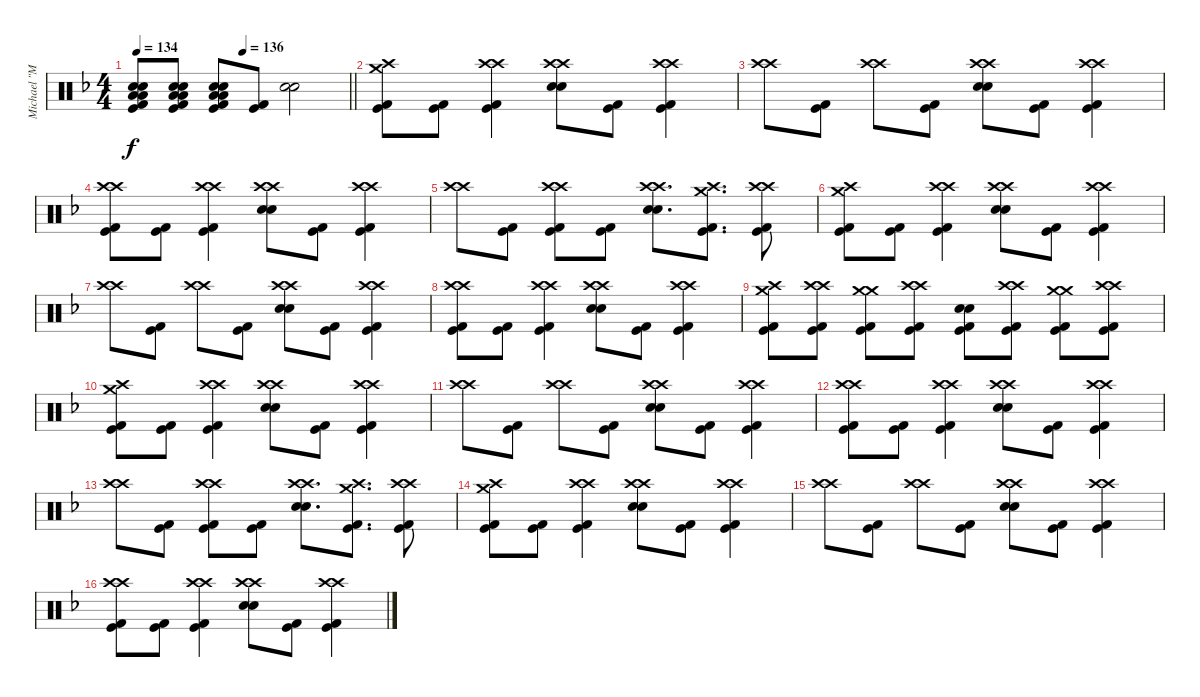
\track ("Michael \"Moose\" Thomas" "Michael \"M") {instrument percussion}
\staff {score}
\articulation defaults
\ts (4 4)
\tempo 134
\tempo (136 0.5)
\clef neutral
\barLineRight lightlight
\ks f
("Low Floor Tom (hit)" "Low Floor Tom (hit)" "Electric Snare (hit)" "Electric Snare (hit)" "Kick (hit)" "Kick (hit) 2").8{dy f} ("Low Floor Tom (hit)" "Low Floor Tom (hit)" "Electric Snare (hit)" "Electric Snare (hit)" "Kick (hit)" "Kick (hit) 2").8 ("Low Floor Tom (hit)" "Low Floor Tom (hit)" "Electric Snare (hit)" "Electric Snare (hit)" "Kick (hit)" "Kick (hit) 2").8 ("Kick (hit)" "Kick (hit) 2").8 ("Electric Snare (hit)" "Electric Snare (hit)").2 |
("Crash high (hit)" "Crash medium (hit)" "Kick (hit)" "Kick (hit) 2").8 ("Kick (hit)" "Kick (hit) 2").8 ("Crash high (hit)" "Crash high (hit)" "Kick (hit)" "Kick (hit) 2").4 ("Crash high (hit)" "Crash high (hit)" "Electric Snare (hit)" "Electric Snare (hit)").8 ("Kick (hit)" "Kick (hit) 2").8 ("Crash high (hit)" "Crash high (hit)" "Kick (hit)" "Kick (hit) 2").4 |
("Crash high (hit)" "Crash high (hit)").8 ("Kick (hit)" "Kick (hit) 2").8 ("Crash high (hit)" "Crash high (hit)").8 ("Kick (hit)" "Kick (hit) 2").8 ("Crash high (hit)" "Crash high (hit)" "Electric Snare (hit)" "Electric Snare (hit)").8 ("Kick (hit)" "Kick (hit) 2").8 ("Crash high (hit)" "Crash high (hit)" "Kick (hit)" "Kick (hit) 2").4 |
("Crash high (hit)" "Crash high (hit)" "Kick (hit)" "Kick (hit) 2").8 ("Kick (hit)" "Kick (hit) 2").8 ("Crash high (hit)" "Crash high (hit)" "Kick (hit)" "Kick (hit) 2").4 ("Crash high (hit)" "Crash high (hit)" "Electric Snare (hit)" "Electric Snare (hit)").8 ("Kick (hit)" "Kick (hit) 2").8 ("Crash high (hit)" "Crash high (hit)" "Kick (hit)" "Kick (hit) 2").4 |
("Crash high (hit)" "Crash high (hit)").8 ("Kick (hit)" "Kick (hit) 2").8 ("Crash high (hit)" "Crash high (hit)" "Kick (hit)" "Kick (hit) 2").8 ("Kick (hit)" "Kick (hit) 2").8 ("Crash high (hit)" "Crash high (hit)" "Electric Snare (hit)" "Electric Snare (hit)").8{d} ("Crash high (hit)" "Crash medium (hit)" "Kick (hit)" "Kick (hit) 2").8{d} ("Crash high (hit)" "Crash high (hit)" "Kick (hit)" "Kick (hit) 2").8 |
("Crash high (hit)" "Crash medium (hit)" "Kick (hit)" "Kick (hit) 2").8 ("Kick (hit)" "Kick (hit) 2").8 ("Crash high (hit)" "Crash high (hit)" "Kick (hit)" "Kick (hit) 2").4 ("Crash high (hit)" "Crash high (hit)" "Electric Snare (hit)" "Electric Snare (hit)").8 ("Kick (hit)" "Kick (hit) 2").8 ("Crash high (hit)" "Crash high (hit)" "Kick (hit)" "Kick (hit) 2").4 |
("Crash high (hit)" "Crash high (hit)").8 ("Kick (hit)" "Kick (hit) 2").8 ("Crash high (hit)" "Crash high (hit)").8 ("Kick (hit)" "Kick (hit) 2").8 ("Crash high (hit)" "Crash high (hit)" "Electric Snare (hit)" "Electric Snare (hit)").8 ("Kick (hit)" "Kick (hit) 2").8 ("Crash high (hit)" "Crash high (hit)" "Kick (hit)" "Kick (hit) 2").4 |
("Crash high (hit)" "Crash high (hit)" "Kick (hit)" "Kick (hit) 2").8 ("Kick (hit)" "Kick (hit) 2").8 ("Crash high (hit)" "Crash high (hit)" "Kick (hit)" "Kick (hit) 2").4 ("Crash high (hit)" "Crash high (hit)" "Electric Snare (hit)" "Electric Snare (hit)").8 ("Kick (hit)" "Kick (hit) 2").8 ("Crash high (hit)" "Crash high (hit)" "Kick (hit)" "Kick (hit) 2").4 |
("Crash high (hit)" "Crash medium (hit)" "Kick (hit)" "Kick (hit) 2").8 ("Crash high (hit)" "Crash high (hit)" "Kick (hit)" "Kick (hit) 2").8 ("Crash medium (hit)" "Crash medium (hit)" "Kick (hit)" "Kick (hit) 2").8 ("Crash high (hit)" "Crash high (hit)" "Kick (hit)" "Kick (hit) 2").8 ("Electric Snare (hit)" "Electric Snare (hit)" "Kick (hit)" "Kick (hit) 2").8 ("Crash high (hit)" "Crash high (hit)" "Kick (hit)" "Kick (hit) 2").8 ("Crash medium (hit)" "Crash medium (hit)" "Kick (hit)" "Kick (hit) 2").8 ("Crash high (hit)" "Crash high (hit)" "Kick (hit)" "Kick (hit) 2").8 |
("Crash high (hit)" "Crash medium (hit)" "Kick (hit)" "Kick (hit) 2").8 ("Kick (hit)" "Kick (hit) 2").8 ("Crash high (hit)" "Crash high (hit)" "Kick (hit)" "Kick (hit) 2").4 ("Crash high (hit)" "Crash high (hit)" "Electric Snare (hit)" "Electric Snare (hit)").8 ("Kick (hit)" "Kick (hit) 2").8 ("Crash high (hit)" "Crash high (hit)" "Kick (hit)" "Kick (hit) 2").4 |
("Crash high (hit)" "Crash high (hit)").8 ("Kick (hit)" "Kick (hit) 2").8 ("Crash high (hit)" "Crash high (hit)").8 ("Kick (hit)" "Kick (hit) 2").8 ("Crash high (hit)" "Crash high (hit)" "Electric Snare (hit)" "Electric Snare (hit)").8 ("Kick (hit)" "Kick (hit) 2").8 ("Crash high (hit)" "Crash high (hit)" "Kick (hit)" "Kick (hit) 2").4 |
("Crash high (hit)" "Crash high (hit)" "Kick (hit)" "Kick (hit) 2").8 ("Kick (hit)" "Kick (hit) 2").8 ("Crash high (hit)" "Crash high (hit)" "Kick (hit)" "Kick (hit) 2").4 ("Crash high (hit)" "Crash high (hit)" "Electric Snare (hit)" "Electric Snare (hit)").8 ("Kick (hit)" "Kick (hit) 2").8 ("Crash high (hit)" "Crash high (hit)" "Kick (hit)" "Kick (hit) 2").4 |
("Crash high (hit)" "Crash high (hit)").8 ("Kick (hit)" "Kick (hit) 2").8 ("Crash high (hit)" "Crash high (hit)" "Kick (hit)" "Kick (hit) 2").8 ("Kick (hit)" "Kick (hit) 2").8 ("Crash high (hit)" "Crash high (hit)" "Electric Snare (hit)" "Electric Snare (hit)").8{d} ("Crash high (hit)" "Crash medium (hit)" "Kick (hit)" "Kick (hit) 2").8{d} ("Crash high (hit)" "Crash high (hit)" "Kick (hit)" "Kick (hit) 2").8 |
("Crash high (hit)" "Crash medium (hit)" "Kick (hit)" "Kick (hit) 2").8 ("Kick (hit)" "Kick (hit) 2").8 ("Crash high (hit)" "Crash high (hit)" "Kick (hit)" "Kick (hit) 2").4 ("Crash high (hit)" "Crash high (hit)" "Electric Snare (hit)" "Electric Snare (hit)").8 ("Kick (hit)" "Kick (hit) 2").8 ("Crash high (hit)" "Crash high (hit)" "Kick (hit)" "Kick (hit) 2").4 |
("Crash high (hit)" "Crash high (hit)").8 ("Kick (hit)" "Kick (hit) 2").8 ("Crash high (hit)" "Crash high (hit)").8 ("Kick (hit)" "Kick (hit) 2").8 ("Crash high (hit)" "Crash high (hit)" "Electric Snare (hit)" "Electric Snare (hit)").8 ("Kick (hit)" "Kick (hit) 2").8 ("Crash high (hit)" "Crash high (hit)" "Kick (hit)" "Kick (hit) 2").4 |
("Crash high (hit)" "Crash high (hit)" "Kick (hit)" "Kick (hit) 2").8 ("Kick (hit)" "Kick (hit) 2").8 ("Crash high (hit)" "Crash high (hit)" "Kick (hit)" "Kick (hit) 2").4 ("Crash high (hit)" "Crash high (hit)" "Electric Snare (hit)" "Electric Snare (hit)").8 ("Kick (hit)" "Kick (hit) 2").8 ("Crash high (hit)" "Crash high (hit)" "Kick (hit)" "Kick (hit) 2").4
